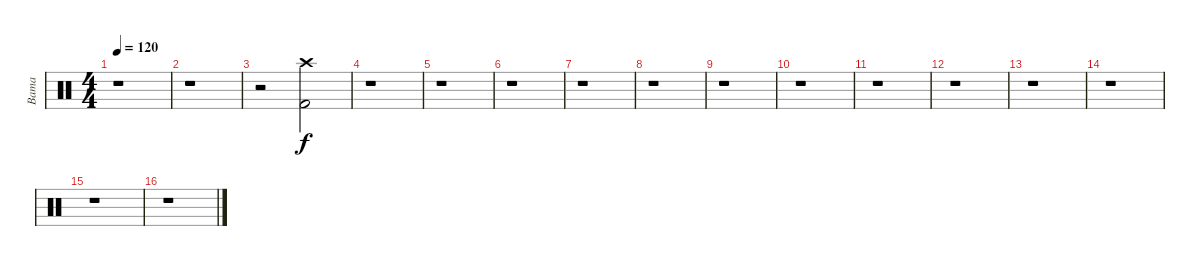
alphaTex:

\track ("Bama" "Bama") {instrument percussion}
\staff {score}
\articulation defaults
\ts (4 4)
\tempo 120
\clef neutral
\ks c
r.1{dy f} |
r.1 |
r.2 ("Crash high (hit)" "Kick (hit) 2").2 |
r.1 |
r.1 |
r.1 |
r.1 |
r.1 |
r.1 |
r.1 |
r.1 |
r.1 |
r.1 |
r.1 |
r.1 |
r.1
